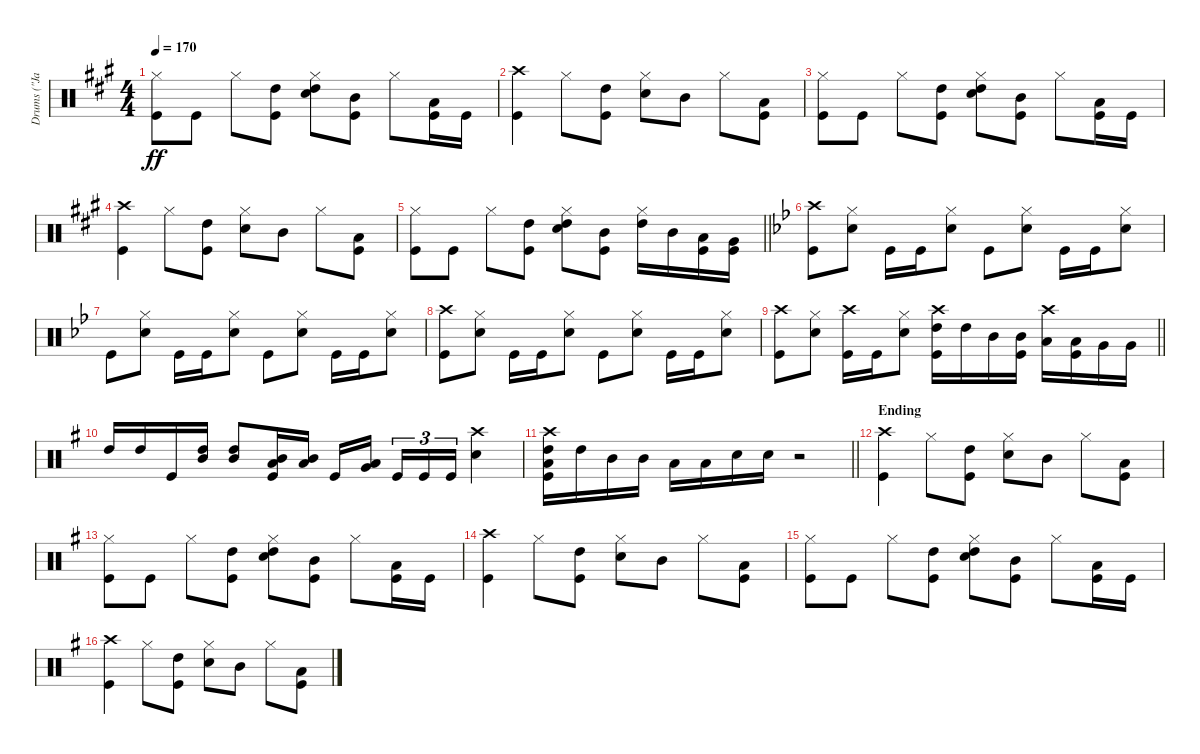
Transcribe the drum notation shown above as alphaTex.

\track ("Drums (\"Jane\")" "Drums (\"Ja") {instrument percussion}
\staff {score}
\articulation defaults
\ts (4 4)
\tempo 170
\clef neutral
\ks a
("Hi-Hat (closed)" "Kick (hit)").8{dy ff} "Kick (hit)".8 "Hi-Hat (closed)".8 ("High Tom (hit)" "Kick (hit)").8 ("Hi-Hat (closed)" "Snare (hit) 2" "High Tom (hit)").8 ("Mid Tom (hit)" "Kick (hit)").8 "Hi-Hat (closed)".8 ("Low Tom (hit)" "Kick (hit)").16 "Kick (hit)".16 |
("Crash high (hit)" "Kick (hit)").4 "Hi-Hat (closed)".8 ("High Tom (hit)" "Kick (hit)").8 ("Hi-Hat (closed)" "Snare (hit) 2").8 "Mid Tom (hit)".8 "Hi-Hat (closed)".8 ("Low Tom (hit)" "Kick (hit)").8 |
("Hi-Hat (closed)" "Kick (hit)").8 "Kick (hit)".8 "Hi-Hat (closed)".8 ("High Tom (hit)" "Kick (hit)").8 ("Hi-Hat (closed)" "Snare (hit) 2" "High Tom (hit)").8 ("Mid Tom (hit)" "Kick (hit)").8 "Hi-Hat (closed)".8 ("Low Tom (hit)" "Kick (hit)").16 "Kick (hit)".16 |
("Crash high (hit)" "Kick (hit)").4 "Hi-Hat (closed)".8 ("High Tom (hit)" "Kick (hit)").8 ("Hi-Hat (closed)" "Snare (hit) 2").8 "Mid Tom (hit)".8 "Hi-Hat (closed)".8 ("Low Tom (hit)" "Kick (hit)").8 |
\barLineRight lightlight
("Hi-Hat (closed)" "Kick (hit)").8 "Kick (hit)".8 "Hi-Hat (closed)".8 ("High Tom (hit)" "Kick (hit)").8 ("Hi-Hat (closed)" "Snare (hit) 2" "High Tom (hit)").8 ("Mid Tom (hit)" "Kick (hit)").8 ("Hi-Hat (closed)" "High Tom (hit)").16 "Mid Tom (hit)".16 ("Low Tom (hit)" "Kick (hit)").16 ("Very Low Tom (hit)" "Kick (hit)").16 |
\ks bb
("Crash high (hit)" "Kick (hit)").8 ("Hi-Hat (closed)" "Snare (hit) 2").8 "Kick (hit)".16 "Kick (hit)".16 ("Hi-Hat (closed)" "Snare (hit) 2").8 "Kick (hit)".8 ("Hi-Hat (closed)" "Snare (hit) 2").8 "Kick (hit)".16 "Kick (hit)".16 ("Hi-Hat (closed)" "Snare (hit) 2").8 |
"Kick (hit)".8 ("Hi-Hat (closed)" "Snare (hit) 2").8 "Kick (hit)".16 "Kick (hit)".16 ("Hi-Hat (closed)" "Snare (hit) 2").8 "Kick (hit)".8 ("Hi-Hat (closed)" "Snare (hit) 2").8 "Kick (hit)".16 "Kick (hit)".16 ("Hi-Hat (closed)" "Snare (hit) 2").8 |
("Crash high (hit)" "Kick (hit)").8 ("Hi-Hat (closed)" "Snare (hit) 2").8 "Kick (hit)".16 "Kick (hit)".16 ("Hi-Hat (closed)" "Snare (hit) 2").8 "Kick (hit)".8 ("Hi-Hat (closed)" "Snare (hit) 2").8 "Kick (hit)".16 "Kick (hit)".16 ("Hi-Hat (closed)" "Snare (hit) 2").8 |
\barLineRight lightlight
("Crash high (hit)" "Kick (hit)").8 ("Hi-Hat (closed)" "Snare (hit) 2").8 ("Crash high (hit)" "Kick (hit)").16 "Kick (hit)".16 ("Hi-Hat (closed)" "Snare (hit) 2").8 ("Crash high (hit)" "High Tom (hit)" "Kick (hit)").16 "High Tom (hit)".16 "Mid Tom (hit)".16 ("Mid Tom (hit)" "Kick (hit)").16 ("Crash high (hit)" "Low Tom (hit)").16 ("Low Tom (hit)" "Kick (hit)").16 "Very Low Tom (hit)".16 "Very Low Tom (hit)".16 |
\ks g "High Tom (hit)".16 "High Tom (hit)".16 "Kick (hit)".16
("High Tom (hit)" "Mid Tom (hit)").16 ("High Tom (hit)" "Mid Tom (hit)").8 ("Low Tom (hit)" "Mid Tom (hit)" "Kick (hit)").16 ("Low Tom (hit)" "Mid Tom (hit)").16 "Kick (hit)".16 ("Low Tom (hit)" "Very Low Tom (hit)").16{beam splitsecondary} "Kick (hit)".16{tu (3 2)} "Kick (hit)".16{tu (3 2)} "Kick (hit)".16{tu (3 2)} ("Crash high (hit)" "Snare (hit) 2").4 |
\barLineRight lightlight
("Crash high (hit)" "High Tom (hit)" "Low Tom (hit)" "Kick (hit)").16 "High Tom (hit)".16 "Mid Tom (hit)".16 "Mid Tom (hit)".16 "Low Tom (hit)".16 "Low Tom (hit)".16 "Snare (hit) 2".16 "Snare (hit) 2".16 r.2 |
\section ("" "Ending")
("Crash high (hit)" "Kick (hit)").4 "Hi-Hat (closed)".8 ("High Tom (hit)" "Kick (hit)").8 ("Hi-Hat (closed)" "Snare (hit) 2").8 "Mid Tom (hit)".8 "Hi-Hat (closed)".8 ("Low Tom (hit)" "Kick (hit)").8 |
("Hi-Hat (closed)" "Kick (hit)").8 "Kick (hit)".8 "Hi-Hat (closed)".8 ("High Tom (hit)" "Kick (hit)").8 ("Hi-Hat (closed)" "Snare (hit) 2" "High Tom (hit)").8 ("Mid Tom (hit)" "Kick (hit)").8 "Hi-Hat (closed)".8 ("Low Tom (hit)" "Kick (hit)").16 "Kick (hit)".16 |
("Crash high (hit)" "Kick (hit)").4 "Hi-Hat (closed)".8 ("High Tom (hit)" "Kick (hit)").8 ("Hi-Hat (closed)" "Snare (hit) 2").8 "Mid Tom (hit)".8 "Hi-Hat (closed)".8 ("Low Tom (hit)" "Kick (hit)").8 |
("Hi-Hat (closed)" "Kick (hit)").8 "Kick (hit)".8 "Hi-Hat (closed)".8 ("High Tom (hit)" "Kick (hit)").8 ("Hi-Hat (closed)" "Snare (hit) 2" "High Tom (hit)").8 ("Mid Tom (hit)" "Kick (hit)").8 "Hi-Hat (closed)".8 ("Low Tom (hit)" "Kick (hit)").16 "Kick (hit)".16 |
("Crash high (hit)" "Kick (hit)").4 "Hi-Hat (closed)".8 ("High Tom (hit)" "Kick (hit)").8 ("Hi-Hat (closed)" "Snare (hit) 2").8 "Mid Tom (hit)".8 "Hi-Hat (closed)".8 ("Low Tom (hit)" "Kick (hit)").8
